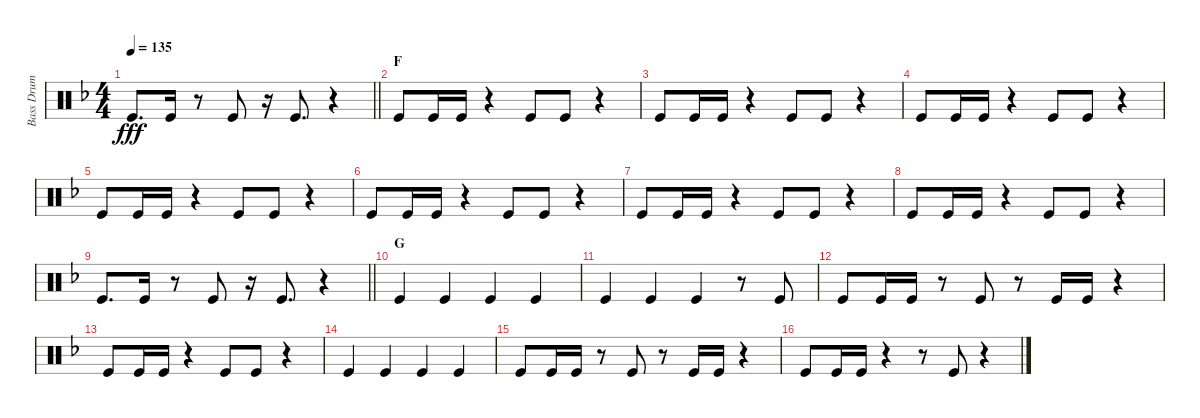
\track ("Bass Drum" "Bass Drum") {instrument percussion}
\staff {score}
\articulation defaults
\ts (4 4)
\tempo 135
\clef neutral
\barLineRight lightlight
\ks f "Kick (hit)".8{d dy fff} "Kick (hit)".16
r.8 "Kick (hit)".8 r.16 "Kick (hit)".8{d} r.4 |
\section ("" "F")
"Kick (hit)".8 "Kick (hit)".16 "Kick (hit)".16 r.4 "Kick (hit)".8 "Kick (hit)".8 r.4 |
"Kick (hit)".8 "Kick (hit)".16 "Kick (hit)".16 r.4 "Kick (hit)".8 "Kick (hit)".8 r.4 |
"Kick (hit)".8 "Kick (hit)".16 "Kick (hit)".16 r.4 "Kick (hit)".8 "Kick (hit)".8 r.4 |
"Kick (hit)".8 "Kick (hit)".16 "Kick (hit)".16 r.4 "Kick (hit)".8 "Kick (hit)".8 r.4 |
"Kick (hit)".8 "Kick (hit)".16 "Kick (hit)".16 r.4 "Kick (hit)".8 "Kick (hit)".8 r.4 |
"Kick (hit)".8 "Kick (hit)".16 "Kick (hit)".16 r.4 "Kick (hit)".8 "Kick (hit)".8 r.4 |
"Kick (hit)".8 "Kick (hit)".16 "Kick (hit)".16 r.4 "Kick (hit)".8 "Kick (hit)".8 r.4 |
\barLineRight lightlight "Kick (hit)".8{d} "Kick (hit)".16
r.8 "Kick (hit)".8 r.16 "Kick (hit)".8{d} r.4 |
\section ("" "G")
"Kick (hit)".4 "Kick (hit)".4 "Kick (hit)".4 "Kick (hit)".4 |
"Kick (hit)".4 "Kick (hit)".4 "Kick (hit)".4 r.8 "Kick (hit)".8 |
"Kick (hit)".8 "Kick (hit)".16 "Kick (hit)".16 r.8 "Kick (hit)".8 r.8 "Kick (hit)".16 "Kick (hit)".16 r.4 |
"Kick (hit)".8 "Kick (hit)".16 "Kick (hit)".16 r.4 "Kick (hit)".8 "Kick (hit)".8 r.4 |
"Kick (hit)".4 "Kick (hit)".4 "Kick (hit)".4 "Kick (hit)".4 |
"Kick (hit)".8 "Kick (hit)".16 "Kick (hit)".16 r.8 "Kick (hit)".8 r.8 "Kick (hit)".16 "Kick (hit)".16 r.4 |
"Kick (hit)".8 "Kick (hit)".16 "Kick (hit)".16 r.4 r.8 "Kick (hit)".8 r.4
